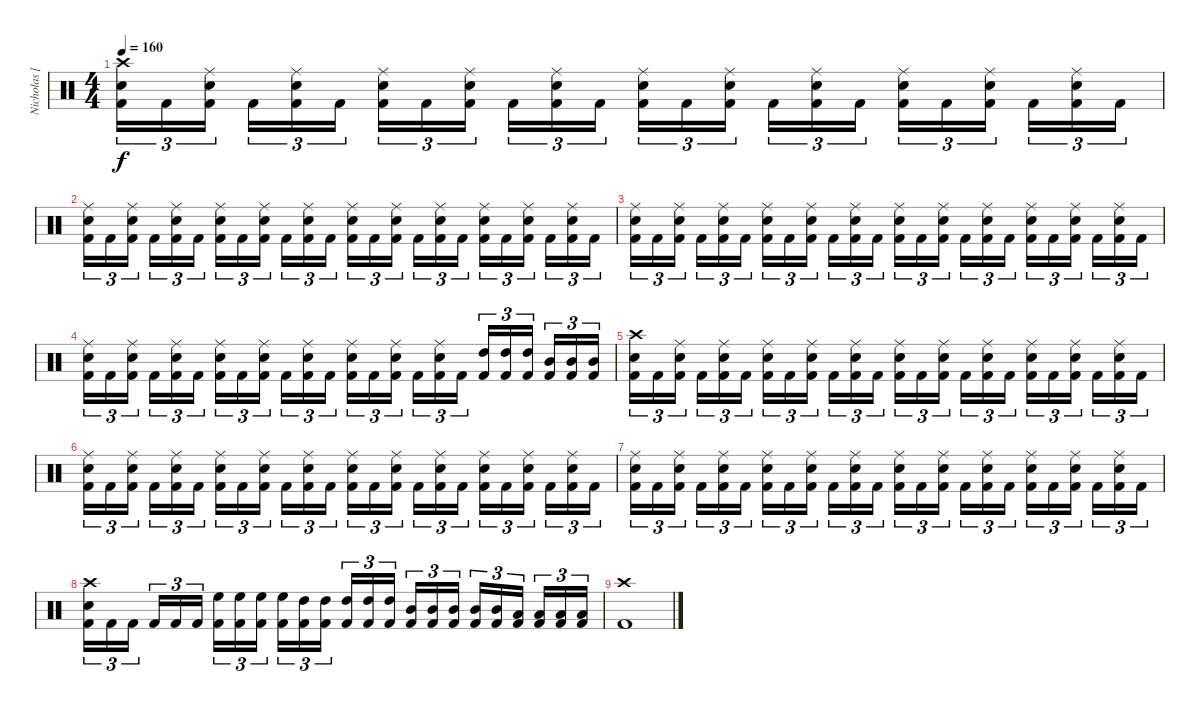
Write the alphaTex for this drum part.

\track ("Nicholas [Percussion]" "Nicholas [") {instrument percussion}
\staff {score}
\articulation defaults
\ts (4 4)
\tempo 160
\clef neutral
\ks c
("Kick (hit) 2" "Snare (hit) 2" "Crash high (hit)").16{tu (3 2) dy f} "Kick (hit) 2".16{tu (3 2)} ("Kick (hit) 2" "Snare (hit) 2" "Ride (middle)").16{tu (3 2)} "Kick (hit) 2".16{tu (3 2)} ("Kick (hit) 2" "Snare (hit) 2" "Ride (middle)").16{tu (3 2)} "Kick (hit) 2".16{tu (3 2)} ("Kick (hit) 2" "Snare (hit) 2" "Ride (middle)").16{tu (3 2)} "Kick (hit) 2".16{tu (3 2)} ("Kick (hit) 2" "Snare (hit) 2" "Ride (middle)").16{tu (3 2)} "Kick (hit) 2".16{tu (3 2)} ("Kick (hit) 2" "Snare (hit) 2" "Ride (middle)").16{tu (3 2)} "Kick (hit) 2".16{tu (3 2)} ("Kick (hit) 2" "Snare (hit) 2" "Ride (middle)").16{tu (3 2)} "Kick (hit) 2".16{tu (3 2)} ("Kick (hit) 2" "Snare (hit) 2" "Ride (middle)").16{tu (3 2)} "Kick (hit) 2".16{tu (3 2)} ("Kick (hit) 2" "Snare (hit) 2" "Ride (middle)").16{tu (3 2)} "Kick (hit) 2".16{tu (3 2)} ("Kick (hit) 2" "Snare (hit) 2" "Ride (middle)").16{tu (3 2)} "Kick (hit) 2".16{tu (3 2)} ("Kick (hit) 2" "Snare (hit) 2" "Ride (middle)").16{tu (3 2)} "Kick (hit) 2".16{tu (3 2)} ("Kick (hit) 2" "Snare (hit) 2" "Ride (middle)").16{tu (3 2)} "Kick (hit) 2".16{tu (3 2)} |
("Kick (hit) 2" "Snare (hit) 2" "Ride (middle)").16{tu (3 2)} "Kick (hit) 2".16{tu (3 2)} ("Kick (hit) 2" "Snare (hit) 2" "Ride (middle)").16{tu (3 2)} "Kick (hit) 2".16{tu (3 2)} ("Kick (hit) 2" "Snare (hit) 2" "Ride (middle)").16{tu (3 2)} "Kick (hit) 2".16{tu (3 2)} ("Kick (hit) 2" "Snare (hit) 2" "Ride (middle)").16{tu (3 2)} "Kick (hit) 2".16{tu (3 2)} ("Kick (hit) 2" "Snare (hit) 2" "Ride (middle)").16{tu (3 2)} "Kick (hit) 2".16{tu (3 2)} ("Kick (hit) 2" "Snare (hit) 2" "Ride (middle)").16{tu (3 2)} "Kick (hit) 2".16{tu (3 2)} ("Kick (hit) 2" "Snare (hit) 2" "Ride (middle)").16{tu (3 2)} "Kick (hit) 2".16{tu (3 2)} ("Kick (hit) 2" "Snare (hit) 2" "Ride (middle)").16{tu (3 2)} "Kick (hit) 2".16{tu (3 2)} ("Kick (hit) 2" "Snare (hit) 2" "Ride (middle)").16{tu (3 2)} "Kick (hit) 2".16{tu (3 2)} ("Kick (hit) 2" "Snare (hit) 2" "Ride (middle)").16{tu (3 2)} "Kick (hit) 2".16{tu (3 2)} ("Kick (hit) 2" "Snare (hit) 2" "Ride (middle)").16{tu (3 2)} "Kick (hit) 2".16{tu (3 2)} ("Kick (hit) 2" "Snare (hit) 2" "Ride (middle)").16{tu (3 2)} "Kick (hit) 2".16{tu (3 2)} |
("Kick (hit) 2" "Snare (hit) 2" "Ride (middle)").16{tu (3 2)} "Kick (hit) 2".16{tu (3 2)} ("Kick (hit) 2" "Snare (hit) 2" "Ride (middle)").16{tu (3 2)} "Kick (hit) 2".16{tu (3 2)} ("Kick (hit) 2" "Snare (hit) 2" "Ride (middle)").16{tu (3 2)} "Kick (hit) 2".16{tu (3 2)} ("Kick (hit) 2" "Snare (hit) 2" "Ride (middle)").16{tu (3 2)} "Kick (hit) 2".16{tu (3 2)} ("Kick (hit) 2" "Snare (hit) 2" "Ride (middle)").16{tu (3 2)} "Kick (hit) 2".16{tu (3 2)} ("Kick (hit) 2" "Snare (hit) 2" "Ride (middle)").16{tu (3 2)} "Kick (hit) 2".16{tu (3 2)} ("Kick (hit) 2" "Snare (hit) 2" "Ride (middle)").16{tu (3 2)} "Kick (hit) 2".16{tu (3 2)} ("Kick (hit) 2" "Snare (hit) 2" "Ride (middle)").16{tu (3 2)} "Kick (hit) 2".16{tu (3 2)} ("Kick (hit) 2" "Snare (hit) 2" "Ride (middle)").16{tu (3 2)} "Kick (hit) 2".16{tu (3 2)} ("Kick (hit) 2" "Snare (hit) 2" "Ride (middle)").16{tu (3 2)} "Kick (hit) 2".16{tu (3 2)} ("Kick (hit) 2" "Snare (hit) 2" "Ride (middle)").16{tu (3 2)} "Kick (hit) 2".16{tu (3 2)} ("Kick (hit) 2" "Snare (hit) 2" "Ride (middle)").16{tu (3 2)} "Kick (hit) 2".16{tu (3 2)} |
("Kick (hit) 2" "Snare (hit) 2" "Ride (middle)").16{tu (3 2)} "Kick (hit) 2".16{tu (3 2)} ("Kick (hit) 2" "Snare (hit) 2" "Ride (middle)").16{tu (3 2)} "Kick (hit) 2".16{tu (3 2)} ("Kick (hit) 2" "Snare (hit) 2" "Ride (middle)").16{tu (3 2)} "Kick (hit) 2".16{tu (3 2)} ("Kick (hit) 2" "Snare (hit) 2" "Ride (middle)").16{tu (3 2)} "Kick (hit) 2".16{tu (3 2)} ("Kick (hit) 2" "Snare (hit) 2" "Ride (middle)").16{tu (3 2)} "Kick (hit) 2".16{tu (3 2)} ("Kick (hit) 2" "Snare (hit) 2" "Ride (middle)").16{tu (3 2)} "Kick (hit) 2".16{tu (3 2)} ("Kick (hit) 2" "Snare (hit) 2" "Ride (middle)").16{tu (3 2)} "Kick (hit) 2".16{tu (3 2)} ("Kick (hit) 2" "Snare (hit) 2" "Ride (middle)").16{tu (3 2)} "Kick (hit) 2".16{tu (3 2)} ("Kick (hit) 2" "Snare (hit) 2" "Ride (middle)").16{tu (3 2)} "Kick (hit) 2".16{tu (3 2)} ("Kick (hit) 2" "High Tom (hit)").16{tu (3 2)} ("Kick (hit) 2" "High Tom (hit)").16{tu (3 2)} ("Kick (hit) 2" "High Tom (hit)").16{tu (3 2)} ("Kick (hit) 2" "Mid Tom (hit)").16{tu (3 2)} ("Kick (hit) 2" "Mid Tom (hit)").16{tu (3 2)} ("Kick (hit) 2" "Mid Tom (hit)").16{tu (3 2)} |
("Kick (hit) 2" "Snare (hit) 2" "Crash high (hit)").16{tu (3 2)} "Kick (hit) 2".16{tu (3 2)} ("Kick (hit) 2" "Snare (hit) 2" "Ride (middle)").16{tu (3 2)} "Kick (hit) 2".16{tu (3 2)} ("Kick (hit) 2" "Snare (hit) 2" "Ride (middle)").16{tu (3 2)} "Kick (hit) 2".16{tu (3 2)} ("Kick (hit) 2" "Snare (hit) 2" "Ride (middle)").16{tu (3 2)} "Kick (hit) 2".16{tu (3 2)} ("Kick (hit) 2" "Snare (hit) 2" "Ride (middle)").16{tu (3 2)} "Kick (hit) 2".16{tu (3 2)} ("Kick (hit) 2" "Snare (hit) 2" "Ride (middle)").16{tu (3 2)} "Kick (hit) 2".16{tu (3 2)} ("Kick (hit) 2" "Snare (hit) 2" "Ride (middle)").16{tu (3 2)} "Kick (hit) 2".16{tu (3 2)} ("Kick (hit) 2" "Snare (hit) 2" "Ride (middle)").16{tu (3 2)} "Kick (hit) 2".16{tu (3 2)} ("Kick (hit) 2" "Snare (hit) 2" "Ride (middle)").16{tu (3 2)} "Kick (hit) 2".16{tu (3 2)} ("Kick (hit) 2" "Snare (hit) 2" "Ride (middle)").16{tu (3 2)} "Kick (hit) 2".16{tu (3 2)} ("Kick (hit) 2" "Snare (hit) 2" "Ride (middle)").16{tu (3 2)} "Kick (hit) 2".16{tu (3 2)} ("Kick (hit) 2" "Snare (hit) 2" "Ride (middle)").16{tu (3 2)} "Kick (hit) 2".16{tu (3 2)} |
("Kick (hit) 2" "Snare (hit) 2" "Ride (middle)").16{tu (3 2)} "Kick (hit) 2".16{tu (3 2)} ("Kick (hit) 2" "Snare (hit) 2" "Ride (middle)").16{tu (3 2)} "Kick (hit) 2".16{tu (3 2)} ("Kick (hit) 2" "Snare (hit) 2" "Ride (middle)").16{tu (3 2)} "Kick (hit) 2".16{tu (3 2)} ("Kick (hit) 2" "Snare (hit) 2" "Ride (middle)").16{tu (3 2)} "Kick (hit) 2".16{tu (3 2)} ("Kick (hit) 2" "Snare (hit) 2" "Ride (middle)").16{tu (3 2)} "Kick (hit) 2".16{tu (3 2)} ("Kick (hit) 2" "Snare (hit) 2" "Ride (middle)").16{tu (3 2)} "Kick (hit) 2".16{tu (3 2)} ("Kick (hit) 2" "Snare (hit) 2" "Ride (middle)").16{tu (3 2)} "Kick (hit) 2".16{tu (3 2)} ("Kick (hit) 2" "Snare (hit) 2" "Ride (middle)").16{tu (3 2)} "Kick (hit) 2".16{tu (3 2)} ("Kick (hit) 2" "Snare (hit) 2" "Ride (middle)").16{tu (3 2)} "Kick (hit) 2".16{tu (3 2)} ("Kick (hit) 2" "Snare (hit) 2" "Ride (middle)").16{tu (3 2)} "Kick (hit) 2".16{tu (3 2)} ("Kick (hit) 2" "Snare (hit) 2" "Ride (middle)").16{tu (3 2)} "Kick (hit) 2".16{tu (3 2)} ("Kick (hit) 2" "Snare (hit) 2" "Ride (middle)").16{tu (3 2)} "Kick (hit) 2".16{tu (3 2)} |
("Kick (hit) 2" "Snare (hit) 2" "Ride (middle)").16{tu (3 2)} "Kick (hit) 2".16{tu (3 2)} ("Kick (hit) 2" "Snare (hit) 2" "Ride (middle)").16{tu (3 2)} "Kick (hit) 2".16{tu (3 2)} ("Kick (hit) 2" "Snare (hit) 2" "Ride (middle)").16{tu (3 2)} "Kick (hit) 2".16{tu (3 2)} ("Kick (hit) 2" "Snare (hit) 2" "Ride (middle)").16{tu (3 2)} "Kick (hit) 2".16{tu (3 2)} ("Kick (hit) 2" "Snare (hit) 2" "Ride (middle)").16{tu (3 2)} "Kick (hit) 2".16{tu (3 2)} ("Kick (hit) 2" "Snare (hit) 2" "Ride (middle)").16{tu (3 2)} "Kick (hit) 2".16{tu (3 2)} ("Kick (hit) 2" "Snare (hit) 2" "Ride (middle)").16{tu (3 2)} "Kick (hit) 2".16{tu (3 2)} ("Kick (hit) 2" "Snare (hit) 2" "Ride (middle)").16{tu (3 2)} "Kick (hit) 2".16{tu (3 2)} ("Kick (hit) 2" "Snare (hit) 2" "Ride (middle)").16{tu (3 2)} "Kick (hit) 2".16{tu (3 2)} ("Kick (hit) 2" "Snare (hit) 2" "Ride (middle)").16{tu (3 2)} "Kick (hit) 2".16{tu (3 2)} ("Kick (hit) 2" "Snare (hit) 2" "Ride (middle)").16{tu (3 2)} "Kick (hit) 2".16{tu (3 2)} ("Kick (hit) 2" "Snare (hit) 2" "Ride (middle)").16{tu (3 2)} "Kick (hit) 2".16{tu (3 2)} |
("Kick (hit) 2" "Snare (hit) 2" "Crash high (hit)").16{tu (3 2)} "Kick (hit) 2".16{tu (3 2)} "Kick (hit) 2".16{tu (3 2)} "Kick (hit) 2".16{tu (3 2)} "Kick (hit) 2".16{tu (3 2)} "Kick (hit) 2".16{tu (3 2)} ("Kick (hit) 2" "High Floor Tom (hit)").16{tu (3 2)} ("Kick (hit) 2" "High Floor Tom (hit)").16{tu (3 2)} ("Kick (hit) 2" "High Floor Tom (hit)").16{tu (3 2)} ("Kick (hit) 2" "High Floor Tom (hit)").16{tu (3 2)} ("Kick (hit) 2" "High Tom (hit)").16{tu (3 2)} ("Kick (hit) 2" "High Tom (hit)").16{tu (3 2)} ("Kick (hit) 2" "High Tom (hit)").16{tu (3 2)} ("Kick (hit) 2" "High Tom (hit)").16{tu (3 2)} ("Kick (hit) 2" "High Tom (hit)").16{tu (3 2)} ("Kick (hit) 2" "Mid Tom (hit)").16{tu (3 2)} ("Kick (hit) 2" "Mid Tom (hit)").16{tu (3 2)} ("Kick (hit) 2" "Mid Tom (hit)").16{tu (3 2)} ("Kick (hit) 2" "Mid Tom (hit)").16{tu (3 2)} ("Kick (hit) 2" "Mid Tom (hit)").16{tu (3 2)} ("Kick (hit) 2" "Low Tom (hit)").16{tu (3 2)} ("Kick (hit) 2" "Low Tom (hit)").16{tu (3 2)} ("Kick (hit) 2" "Low Tom (hit)").16{tu (3 2)} ("Kick (hit) 2" "Low Tom (hit)").16{tu (3 2)} |
("Kick (hit) 2" "Crash high (hit)").1
